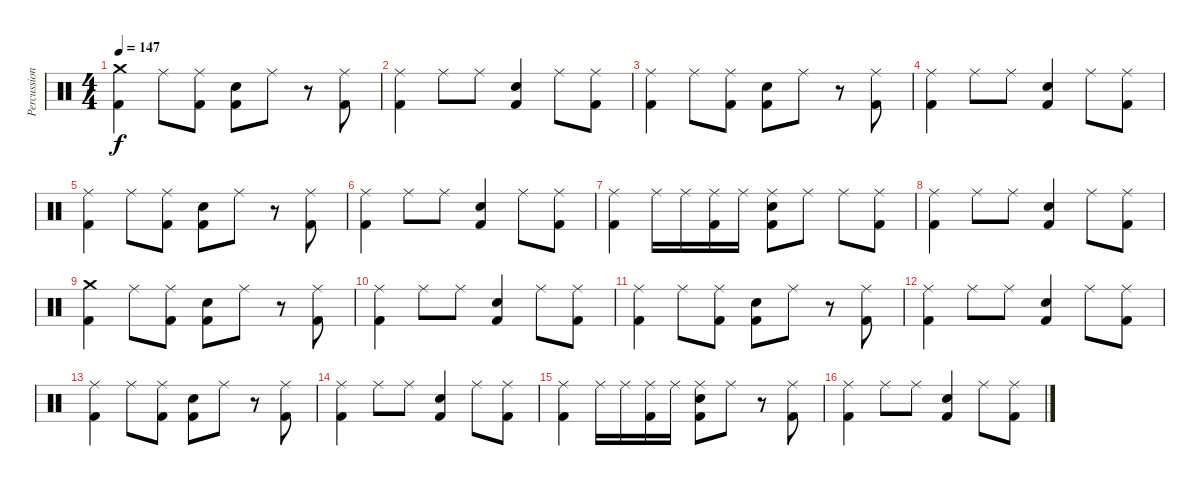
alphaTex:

\track ("Percussion" "Percussion") {instrument percussion}
\staff {score}
\articulation defaults
\ts (4 4)
\tempo 147
\clef neutral
\ks c
("Crash medium (hit)" "Kick (hit) 2").4{dy f} "Ride (middle)".8 ("Ride (middle)" "Kick (hit) 2").8 ("Electric Snare (hit)" "Kick (hit) 2").8 "Ride (middle)".8 r.8 ("Ride (middle)" "Kick (hit) 2").8 |
("Ride (middle)" "Kick (hit) 2").4 "Ride (middle)".8 "Ride (middle)".8 ("Electric Snare (hit)" "Kick (hit) 2").4 "Ride (middle)".8 ("Ride (middle)" "Kick (hit) 2").8 |
("Ride (middle)" "Kick (hit) 2").4 "Ride (middle)".8 ("Ride (middle)" "Kick (hit) 2").8 ("Electric Snare (hit)" "Kick (hit) 2").8 "Ride (middle)".8 r.8 ("Ride (middle)" "Kick (hit) 2").8 |
("Ride (middle)" "Kick (hit) 2").4 "Ride (middle)".8 "Ride (middle)".8 ("Electric Snare (hit)" "Kick (hit) 2").4 "Ride (middle)".8 ("Ride (middle)" "Kick (hit) 2").8 |
("Ride (middle)" "Kick (hit) 2").4 "Ride (middle)".8 ("Ride (middle)" "Kick (hit) 2").8 ("Electric Snare (hit)" "Kick (hit) 2").8 "Ride (middle)".8 r.8 ("Ride (middle)" "Kick (hit) 2").8 |
("Ride (middle)" "Kick (hit) 2").4 "Ride (middle)".8 "Ride (middle)".8 ("Electric Snare (hit)" "Kick (hit) 2").4 "Ride (middle)".8 ("Ride (middle)" "Kick (hit) 2").8 |
("Ride (middle)" "Kick (hit) 2").4 "Ride (middle)".16 "Ride (middle)".16 ("Ride (middle)" "Kick (hit) 2").16 "Ride (middle)".16 ("Electric Snare (hit)" "Ride (middle)" "Kick (hit) 2").8 "Ride (middle)".8 "Ride (middle)".8 ("Ride (middle)" "Kick (hit) 2").8 |
("Ride (middle)" "Kick (hit) 2").4 "Ride (middle)".8 "Ride (middle)".8 ("Electric Snare (hit)" "Kick (hit) 2").4 "Ride (middle)".8 ("Ride (middle)" "Kick (hit) 2").8 |
("Crash medium (hit)" "Kick (hit) 2").4 "Ride (middle)".8 ("Ride (middle)" "Kick (hit) 2").8 ("Electric Snare (hit)" "Kick (hit) 2").8 "Ride (middle)".8 r.8 ("Ride (middle)" "Kick (hit) 2").8 |
("Ride (middle)" "Kick (hit) 2").4 "Ride (middle)".8 "Ride (middle)".8 ("Electric Snare (hit)" "Kick (hit) 2").4 "Ride (middle)".8 ("Ride (middle)" "Kick (hit) 2").8 |
("Ride (middle)" "Kick (hit) 2").4 "Ride (middle)".8 ("Ride (middle)" "Kick (hit) 2").8 ("Electric Snare (hit)" "Kick (hit) 2").8 "Ride (middle)".8 r.8 ("Ride (middle)" "Kick (hit) 2").8 |
("Ride (middle)" "Kick (hit) 2").4 "Ride (middle)".8 "Ride (middle)".8 ("Electric Snare (hit)" "Kick (hit) 2").4 "Ride (middle)".8 ("Ride (middle)" "Kick (hit) 2").8 |
("Ride (middle)" "Kick (hit) 2").4 "Ride (middle)".8 ("Ride (middle)" "Kick (hit) 2").8 ("Electric Snare (hit)" "Kick (hit) 2").8 "Ride (middle)".8 r.8 ("Ride (middle)" "Kick (hit) 2").8 |
("Ride (middle)" "Kick (hit) 2").4 "Ride (middle)".8 "Ride (middle)".8 ("Electric Snare (hit)" "Kick (hit) 2").4 "Ride (middle)".8 ("Ride (middle)" "Kick (hit) 2").8 |
("Ride (middle)" "Kick (hit) 2").4 "Ride (middle)".16 "Ride (middle)".16 ("Ride (middle)" "Kick (hit) 2").16 "Ride (middle)".16 ("Electric Snare (hit)" "Ride (middle)" "Kick (hit) 2").8 "Ride (middle)".8 r.8 ("Ride (middle)" "Kick (hit) 2").8 |
("Ride (middle)" "Kick (hit) 2").4 "Ride (middle)".8 "Ride (middle)".8 ("Electric Snare (hit)" "Kick (hit) 2").4 "Ride (middle)".8 ("Ride (middle)" "Kick (hit) 2").8
